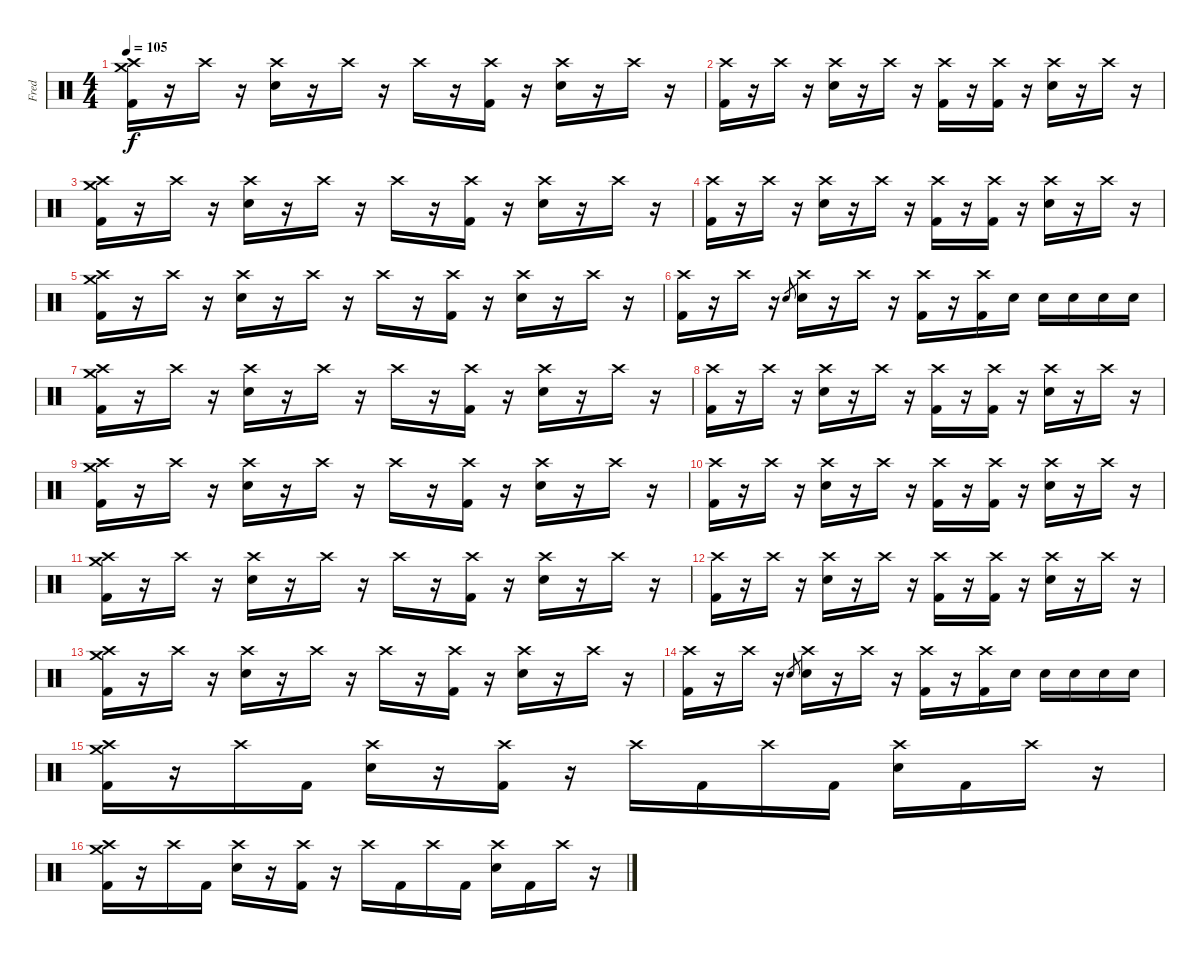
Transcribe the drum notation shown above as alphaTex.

\track ("Fred" "Fred") {instrument percussion}
\staff {score}
\articulation defaults
\ts (4 4)
\tempo 105
\clef neutral
\ks c
("Crash high (hit)" "Crash medium (hit)" "Kick (hit) 2").16{dy f} r.16 "Crash high (hit)".16 r.16 ("Crash high (hit)" "Electric Snare (hit)").16 r.16 "Crash high (hit)".16 r.16 "Crash high (hit)".16 r.16 ("Crash high (hit)" "Kick (hit) 2").16 r.16 ("Crash high (hit)" "Electric Snare (hit)").16 r.16 "Crash high (hit)".16 r.16 |
("Crash high (hit)" "Kick (hit) 2").16 r.16 "Crash high (hit)".16 r.16 ("Crash high (hit)" "Electric Snare (hit)").16 r.16 "Crash high (hit)".16 r.16 ("Crash high (hit)" "Kick (hit) 2").16 r.16 ("Crash high (hit)" "Kick (hit) 2").16 r.16 ("Crash high (hit)" "Electric Snare (hit)").16 r.16 "Crash high (hit)".16 r.16 |
("Crash high (hit)" "Crash medium (hit)" "Kick (hit) 2").16 r.16 "Crash high (hit)".16 r.16 ("Crash high (hit)" "Electric Snare (hit)").16 r.16 "Crash high (hit)".16 r.16 "Crash high (hit)".16 r.16 ("Crash high (hit)" "Kick (hit) 2").16 r.16 ("Crash high (hit)" "Electric Snare (hit)").16 r.16 "Crash high (hit)".16 r.16 |
("Crash high (hit)" "Kick (hit) 2").16 r.16 "Crash high (hit)".16 r.16 ("Crash high (hit)" "Electric Snare (hit)").16 r.16 "Crash high (hit)".16 r.16 ("Crash high (hit)" "Kick (hit) 2").16 r.16 ("Crash high (hit)" "Kick (hit) 2").16 r.16 ("Crash high (hit)" "Electric Snare (hit)").16 r.16 "Crash high (hit)".16 r.16 |
("Crash high (hit)" "Crash medium (hit)" "Kick (hit) 2").16 r.16 "Crash high (hit)".16 r.16 ("Crash high (hit)" "Electric Snare (hit)").16 r.16 "Crash high (hit)".16 r.16 "Crash high (hit)".16 r.16 ("Crash high (hit)" "Kick (hit) 2").16 r.16 ("Crash high (hit)" "Electric Snare (hit)").16 r.16 "Crash high (hit)".16 r.16 |
("Crash high (hit)" "Kick (hit) 2").16 r.16 "Crash high (hit)".16 r.16 "Electric Snare (hit)".8{gr} ("Crash high (hit)" "Electric Snare (hit)").16 r.16 "Crash high (hit)".16 r.16 ("Crash high (hit)" "Kick (hit) 2").16 r.16 ("Crash high (hit)" "Kick (hit) 2").16 "Electric Snare (hit)".16 "Electric Snare (hit)".16 "Electric Snare (hit)".16 "Electric Snare (hit)".16 "Electric Snare (hit)".16 |
("Crash high (hit)" "Crash medium (hit)" "Kick (hit) 2").16 r.16 "Crash high (hit)".16 r.16 ("Crash high (hit)" "Electric Snare (hit)").16 r.16 "Crash high (hit)".16 r.16 "Crash high (hit)".16 r.16 ("Crash high (hit)" "Kick (hit) 2").16 r.16 ("Crash high (hit)" "Electric Snare (hit)").16 r.16 "Crash high (hit)".16 r.16 |
("Crash high (hit)" "Kick (hit) 2").16 r.16 "Crash high (hit)".16 r.16 ("Crash high (hit)" "Electric Snare (hit)").16 r.16 "Crash high (hit)".16 r.16 ("Crash high (hit)" "Kick (hit) 2").16 r.16 ("Crash high (hit)" "Kick (hit) 2").16 r.16 ("Crash high (hit)" "Electric Snare (hit)").16 r.16 "Crash high (hit)".16 r.16 |
("Crash high (hit)" "Crash medium (hit)" "Kick (hit) 2").16 r.16 "Crash high (hit)".16 r.16 ("Crash high (hit)" "Electric Snare (hit)").16 r.16 "Crash high (hit)".16 r.16 "Crash high (hit)".16 r.16 ("Crash high (hit)" "Kick (hit) 2").16 r.16 ("Crash high (hit)" "Electric Snare (hit)").16 r.16 "Crash high (hit)".16 r.16 |
("Crash high (hit)" "Kick (hit) 2").16 r.16 "Crash high (hit)".16 r.16 ("Crash high (hit)" "Electric Snare (hit)").16 r.16 "Crash high (hit)".16 r.16 ("Crash high (hit)" "Kick (hit) 2").16 r.16 ("Crash high (hit)" "Kick (hit) 2").16 r.16 ("Crash high (hit)" "Electric Snare (hit)").16 r.16 "Crash high (hit)".16 r.16 |
("Crash high (hit)" "Crash medium (hit)" "Kick (hit) 2").16 r.16 "Crash high (hit)".16 r.16 ("Crash high (hit)" "Electric Snare (hit)").16 r.16 "Crash high (hit)".16 r.16 "Crash high (hit)".16 r.16 ("Crash high (hit)" "Kick (hit) 2").16 r.16 ("Crash high (hit)" "Electric Snare (hit)").16 r.16 "Crash high (hit)".16 r.16 |
("Crash high (hit)" "Kick (hit) 2").16 r.16 "Crash high (hit)".16 r.16 ("Crash high (hit)" "Electric Snare (hit)").16 r.16 "Crash high (hit)".16 r.16 ("Crash high (hit)" "Kick (hit) 2").16 r.16 ("Crash high (hit)" "Kick (hit) 2").16 r.16 ("Crash high (hit)" "Electric Snare (hit)").16 r.16 "Crash high (hit)".16 r.16 |
("Crash high (hit)" "Crash medium (hit)" "Kick (hit) 2").16 r.16 "Crash high (hit)".16 r.16 ("Crash high (hit)" "Electric Snare (hit)").16 r.16 "Crash high (hit)".16 r.16 "Crash high (hit)".16 r.16 ("Crash high (hit)" "Kick (hit) 2").16 r.16 ("Crash high (hit)" "Electric Snare (hit)").16 r.16 "Crash high (hit)".16 r.16 |
("Crash high (hit)" "Kick (hit) 2").16 r.16 "Crash high (hit)".16 r.16 "Electric Snare (hit)".8{gr} ("Crash high (hit)" "Electric Snare (hit)").16 r.16 "Crash high (hit)".16 r.16 ("Crash high (hit)" "Kick (hit) 2").16 r.16 ("Crash high (hit)" "Kick (hit) 2").16 "Electric Snare (hit)".16 "Electric Snare (hit)".16 "Electric Snare (hit)".16 "Electric Snare (hit)".16 "Electric Snare (hit)".16 |
("Crash high (hit)" "Crash medium (hit)" "Kick (hit) 2").16 r.16 "Crash high (hit)".16 "Kick (hit) 2".16 ("Crash high (hit)" "Electric Snare (hit)").16 r.16 ("Crash high (hit)" "Kick (hit) 2").16 r.16 "Crash high (hit)".16 "Kick (hit) 2".16 "Crash high (hit)".16 "Kick (hit) 2".16 ("Crash high (hit)" "Electric Snare (hit)").16 "Kick (hit) 2".16 "Crash high (hit)".16 r.16 |
("Crash high (hit)" "Crash medium (hit)" "Kick (hit) 2").16 r.16 "Crash high (hit)".16 "Kick (hit) 2".16 ("Crash high (hit)" "Electric Snare (hit)").16 r.16 ("Crash high (hit)" "Kick (hit) 2").16 r.16 "Crash high (hit)".16 "Kick (hit) 2".16 "Crash high (hit)".16 "Kick (hit) 2".16 ("Crash high (hit)" "Electric Snare (hit)").16 "Kick (hit) 2".16 "Crash high (hit)".16 r.16
